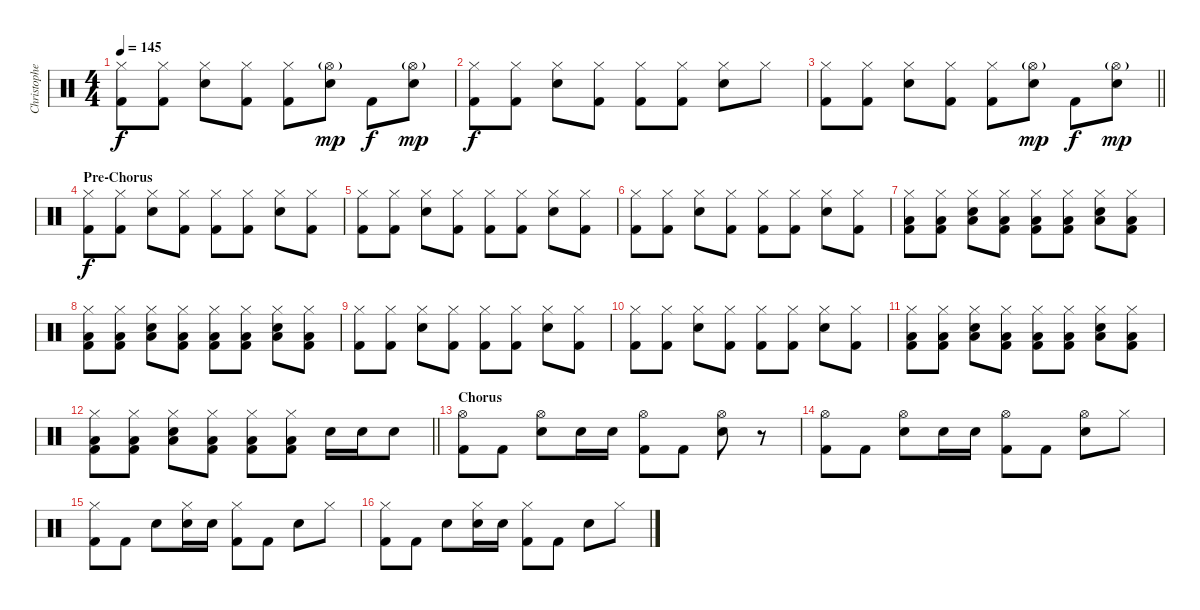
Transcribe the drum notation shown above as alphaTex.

\track ("Christopher - Drums" "Christophe") {instrument percussion}
\staff {score}
\articulation defaults
\ts (4 4)
\tempo 145
\clef neutral
\ks c
("Hi-Hat (closed)" "Kick (hit) 2").8{dy f} ("Hi-Hat (closed)" "Kick (hit) 2").8 ("Hi-Hat (closed)" "Electric Snare (hit)").8 ("Hi-Hat (closed)" "Kick (hit) 2").8 ("Hi-Hat (closed)" "Kick (hit) 2").8 ("Hi-Hat (open)"{g} "Electric Snare (hit)").8{dy mp} "Kick (hit) 2".8{dy f} ("Hi-Hat (open)"{g} "Electric Snare (hit)").8{dy mp} |
("Hi-Hat (closed)" "Kick (hit) 2").8{dy f} ("Hi-Hat (closed)" "Kick (hit) 2").8 ("Hi-Hat (closed)" "Electric Snare (hit)").8 ("Hi-Hat (closed)" "Kick (hit) 2").8 ("Hi-Hat (closed)" "Kick (hit) 2").8 ("Hi-Hat (closed)" "Kick (hit) 2").8 ("Hi-Hat (closed)" "Electric Snare (hit)").8 "Hi-Hat (closed)".8 |
\barLineRight lightlight
("Hi-Hat (closed)" "Kick (hit) 2").8 ("Hi-Hat (closed)" "Kick (hit) 2").8 ("Hi-Hat (closed)" "Electric Snare (hit)").8 ("Hi-Hat (closed)" "Kick (hit) 2").8 ("Hi-Hat (closed)" "Kick (hit) 2").8 ("Hi-Hat (open)"{g} "Electric Snare (hit)").8{dy mp} "Kick (hit) 2".8{dy f} ("Hi-Hat (open)"{g} "Electric Snare (hit)").8{dy mp} |
\section ("" "Pre-Chorus")
("Hi-Hat (closed)" "Kick (hit) 2").8{dy f} ("Hi-Hat (closed)" "Kick (hit) 2").8 ("Hi-Hat (closed)" "Electric Snare (hit)").8 ("Hi-Hat (closed)" "Kick (hit) 2").8 ("Hi-Hat (closed)" "Kick (hit) 2").8 ("Hi-Hat (closed)" "Kick (hit) 2").8 ("Hi-Hat (closed)" "Electric Snare (hit)").8 ("Hi-Hat (closed)" "Kick (hit) 2").8 |
("Hi-Hat (closed)" "Kick (hit) 2").8 ("Hi-Hat (closed)" "Kick (hit) 2").8 ("Hi-Hat (closed)" "Electric Snare (hit)").8 ("Hi-Hat (closed)" "Kick (hit) 2").8 ("Hi-Hat (closed)" "Kick (hit) 2").8 ("Hi-Hat (closed)" "Kick (hit) 2").8 ("Hi-Hat (closed)" "Electric Snare (hit)").8 ("Hi-Hat (closed)" "Kick (hit) 2").8 |
("Hi-Hat (closed)" "Kick (hit) 2").8 ("Hi-Hat (closed)" "Kick (hit) 2").8 ("Hi-Hat (closed)" "Electric Snare (hit)").8 ("Hi-Hat (closed)" "Kick (hit) 2").8 ("Hi-Hat (closed)" "Kick (hit) 2").8 ("Hi-Hat (closed)" "Kick (hit) 2").8 ("Hi-Hat (closed)" "Electric Snare (hit)").8 ("Hi-Hat (closed)" "Kick (hit) 2").8 |
("Hi-Hat (closed)" "Low Tom (hit)" "Kick (hit) 2").8 ("Hi-Hat (closed)" "Low Tom (hit)" "Kick (hit) 2").8 ("Hi-Hat (closed)" "Low Tom (hit)" "Electric Snare (hit)").8 ("Hi-Hat (closed)" "Low Tom (hit)" "Kick (hit) 2").8 ("Hi-Hat (closed)" "Low Tom (hit)" "Kick (hit) 2").8 ("Hi-Hat (closed)" "Low Tom (hit)" "Kick (hit) 2").8 ("Hi-Hat (closed)" "Low Tom (hit)" "Electric Snare (hit)").8 ("Hi-Hat (closed)" "Low Tom (hit)" "Kick (hit) 2").8 |
("Hi-Hat (closed)" "Low Tom (hit)" "Kick (hit) 2").8 ("Hi-Hat (closed)" "Low Tom (hit)" "Kick (hit) 2").8 ("Hi-Hat (closed)" "Low Tom (hit)" "Electric Snare (hit)").8 ("Hi-Hat (closed)" "Low Tom (hit)" "Kick (hit) 2").8 ("Hi-Hat (closed)" "Low Tom (hit)" "Kick (hit) 2").8 ("Hi-Hat (closed)" "Low Tom (hit)" "Kick (hit) 2").8 ("Hi-Hat (closed)" "Low Tom (hit)" "Electric Snare (hit)").8 ("Hi-Hat (closed)" "Low Tom (hit)" "Kick (hit) 2").8 |
("Hi-Hat (closed)" "Kick (hit) 2").8 ("Hi-Hat (closed)" "Kick (hit) 2").8 ("Hi-Hat (closed)" "Electric Snare (hit)").8 ("Hi-Hat (closed)" "Kick (hit) 2").8 ("Hi-Hat (closed)" "Kick (hit) 2").8 ("Hi-Hat (closed)" "Kick (hit) 2").8 ("Hi-Hat (closed)" "Electric Snare (hit)").8 ("Hi-Hat (closed)" "Kick (hit) 2").8 |
("Hi-Hat (closed)" "Kick (hit) 2").8 ("Hi-Hat (closed)" "Kick (hit) 2").8 ("Hi-Hat (closed)" "Electric Snare (hit)").8 ("Hi-Hat (closed)" "Kick (hit) 2").8 ("Hi-Hat (closed)" "Kick (hit) 2").8 ("Hi-Hat (closed)" "Kick (hit) 2").8 ("Hi-Hat (closed)" "Electric Snare (hit)").8 ("Hi-Hat (closed)" "Kick (hit) 2").8 |
("Hi-Hat (closed)" "Low Tom (hit)" "Kick (hit) 2").8 ("Hi-Hat (closed)" "Low Tom (hit)" "Kick (hit) 2").8 ("Hi-Hat (closed)" "Low Tom (hit)" "Electric Snare (hit)").8 ("Hi-Hat (closed)" "Low Tom (hit)" "Kick (hit) 2").8 ("Hi-Hat (closed)" "Low Tom (hit)" "Kick (hit) 2").8 ("Hi-Hat (closed)" "Low Tom (hit)" "Kick (hit) 2").8 ("Hi-Hat (closed)" "Low Tom (hit)" "Electric Snare (hit)").8 ("Hi-Hat (closed)" "Low Tom (hit)" "Kick (hit) 2").8 |
\barLineRight lightlight
("Hi-Hat (closed)" "Low Tom (hit)" "Kick (hit) 2").8 ("Hi-Hat (closed)" "Low Tom (hit)" "Kick (hit) 2").8 ("Hi-Hat (closed)" "Low Tom (hit)" "Electric Snare (hit)").8 ("Hi-Hat (closed)" "Low Tom (hit)" "Kick (hit) 2").8 ("Hi-Hat (closed)" "Low Tom (hit)" "Kick (hit) 2").8 ("Hi-Hat (closed)" "Low Tom (hit)" "Kick (hit) 2").8 "Electric Snare (hit)".16 "Electric Snare (hit)".16 "Electric Snare (hit)".8 |
\section ("" "Chorus")
("Hi-Hat (open)" "Kick (hit) 2").8 "Kick (hit) 2".8 ("Hi-Hat (open)" "Electric Snare (hit)").8 "Electric Snare (hit)".16 "Electric Snare (hit)".16 ("Hi-Hat (open)" "Kick (hit) 2").8 "Kick (hit) 2".8 ("Hi-Hat (open)" "Electric Snare (hit)").8 r.8 |
("Hi-Hat (open)" "Kick (hit) 2").8 "Kick (hit) 2".8 ("Hi-Hat (open)" "Electric Snare (hit)").8 "Electric Snare (hit)".16 "Electric Snare (hit)".16 ("Hi-Hat (open)" "Kick (hit) 2").8 "Kick (hit) 2".8 ("Hi-Hat (open)" "Electric Snare (hit)").8 "Hi-Hat (closed)".8 |
("Hi-Hat (closed)" "Kick (hit) 2").8 "Kick (hit) 2".8 "Electric Snare (hit)".8 ("Hi-Hat (closed)" "Electric Snare (hit)").16 "Electric Snare (hit)".16 ("Hi-Hat (closed)" "Kick (hit) 2").8 "Kick (hit) 2".8 "Electric Snare (hit)".8 "Hi-Hat (closed)".8 |
("Hi-Hat (closed)" "Kick (hit) 2").8 "Kick (hit) 2".8 "Electric Snare (hit)".8 ("Hi-Hat (closed)" "Electric Snare (hit)").16 "Electric Snare (hit)".16 ("Hi-Hat (closed)" "Kick (hit) 2").8 "Kick (hit) 2".8 "Electric Snare (hit)".8 "Hi-Hat (closed)".8
